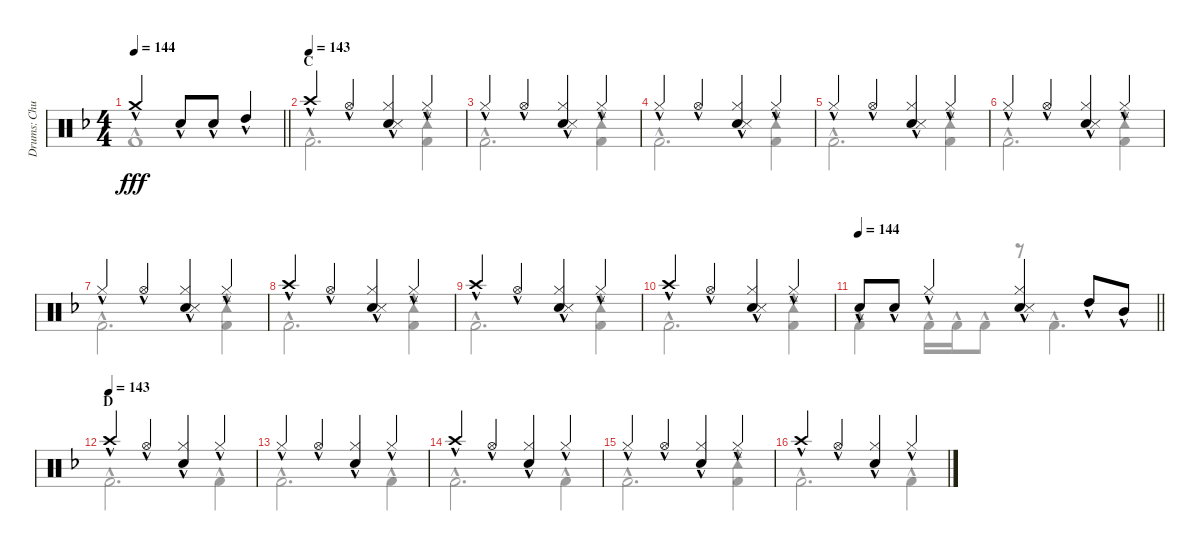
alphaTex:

\track ("Drums: Chuck" "Drums: Chu") {instrument percussion}
\staff {score}
\articulation defaults
\voice
\ts (4 4)
\tempo 144
\clef neutral
\barLineRight lightlight
\ks f "Crash medium (hit)"{hac}.2{dy fff} "Electric Snare (hit)"{hac}.8 "Snare (hit) 2"{hac}.8 "High Tom (hit)"{hac}.4
|
\section ("" "C")
\tempo (143)
"Crash high (hit)"{hac}.4 "Hi-Hat (open)"{hac}.4 ("Hi-Hat (closed)"{hac} "Electric Snare (hit)"{hac} "Snare (side stick) 3"{hac}).4 "Hi-Hat (closed)"{hac}.4 |
"Hi-Hat (closed)"{hac}.4 "Hi-Hat (open)"{hac}.4 ("Hi-Hat (closed)"{hac} "Electric Snare (hit)"{hac} "Snare (side stick) 3"{hac}).4 "Hi-Hat (closed)"{hac}.4 |
"Hi-Hat (closed)"{hac}.4 "Hi-Hat (open)"{hac}.4 ("Hi-Hat (closed)"{hac} "Electric Snare (hit)"{hac} "Snare (side stick) 3"{hac}).4 "Hi-Hat (closed)"{hac}.4 |
"Hi-Hat (closed)"{hac}.4 "Hi-Hat (open)"{hac}.4 ("Hi-Hat (closed)"{hac} "Electric Snare (hit)"{hac} "Snare (side stick) 3"{hac}).4 "Hi-Hat (closed)"{hac}.4 |
"Hi-Hat (closed)"{hac}.4 "Hi-Hat (open)"{hac}.4 ("Hi-Hat (closed)"{hac} "Electric Snare (hit)"{hac} "Snare (side stick) 3"{hac}).4 "Hi-Hat (closed)"{hac}.4 |
"Hi-Hat (closed)"{hac}.4 "Hi-Hat (open)"{hac}.4 ("Hi-Hat (closed)"{hac} "Electric Snare (hit)"{hac} "Snare (side stick) 3"{hac}).4 "Hi-Hat (closed)"{hac}.4 |
"Crash high (hit)"{hac}.4 "Hi-Hat (open)"{hac}.4 ("Hi-Hat (closed)"{hac} "Electric Snare (hit)"{hac} "Snare (side stick) 3"{hac}).4 "Hi-Hat (closed)"{hac}.4 |
"Crash high (hit)"{hac}.4 "Hi-Hat (open)"{hac}.4 ("Hi-Hat (closed)"{hac} "Electric Snare (hit)"{hac} "Snare (side stick) 3"{hac}).4 "Hi-Hat (closed)"{hac}.4 |
"Crash high (hit)"{hac}.4 "Hi-Hat (open)"{hac}.4 ("Hi-Hat (closed)"{hac} "Electric Snare (hit)"{hac} "Snare (side stick) 3"{hac}).4 "Hi-Hat (closed)"{hac}.4 |
\tempo 144
\barLineRight lightlight "Electric Snare (hit)"{hac}.8 "Electric Snare (hit)"{hac}.8 "Hi-Hat (closed)"{hac}.4
("Hi-Hat (closed)"{hac} "Electric Snare (hit)"{hac} "Snare (side stick) 3"{hac}).4 "High Tom (hit)"{hac}.8 "Mid Tom (hit)"{hac}.8 |
\section ("" "D")
\tempo (143)
"Crash high (hit)"{hac}.4 "Hi-Hat (open)"{hac}.4 ("Hi-Hat (closed)"{hac} "Snare (hit) 2"{hac}).4 "Hi-Hat (closed)"{hac}.4 |
"Hi-Hat (closed)"{hac}.4 "Hi-Hat (open)"{hac}.4 ("Hi-Hat (closed)"{hac} "Snare (hit) 2"{hac}).4 "Hi-Hat (closed)"{hac}.4 |
"Crash high (hit)"{hac}.4 "Hi-Hat (open)"{hac}.4 ("Hi-Hat (closed)"{hac} "Snare (hit) 2"{hac}).4 "Hi-Hat (closed)"{hac}.4 |
"Hi-Hat (closed)"{hac}.4 "Hi-Hat (open)"{hac}.4 ("Hi-Hat (closed)"{hac} "Snare (hit) 2"{hac}).4 "Hi-Hat (closed)"{hac}.4 |
"Crash high (hit)"{hac}.4 "Hi-Hat (open)"{hac}.4 ("Hi-Hat (closed)"{hac} "Snare (hit) 2"{hac}).4 "Hi-Hat (closed)"{hac}.4
\voice
\clef neutral
\ottava regular
\simile none
\barLineRight lightlight
\ks f "Kick (hit) 2"{hac}.1{dy fff}
|
"Kick (hit) 2"{hac}.2{d} ("Tambourine (hit)"{hac} "Kick (hit) 2"{hac}).4 |
"Kick (hit) 2"{hac}.2{d} ("Tambourine (hit)"{hac} "Kick (hit) 2"{hac}).4 |
"Kick (hit) 2"{hac}.2{d} ("Tambourine (hit)"{hac} "Kick (hit) 2"{hac}).4 |
"Kick (hit) 2"{hac}.2{d} ("Tambourine (hit)"{hac} "Kick (hit) 2"{hac}).4 |
"Kick (hit) 2"{hac}.2{d} ("Tambourine (hit)"{hac} "Kick (hit) 2"{hac}).4 |
"Kick (hit) 2"{hac}.2{d} ("Tambourine (hit)"{hac} "Kick (hit) 2"{hac}).4 |
"Kick (hit) 2"{hac}.2{d} ("Tambourine (hit)"{hac} "Kick (hit) 2"{hac}).4 |
"Kick (hit) 2"{hac}.2{d} ("Tambourine (hit)"{hac} "Kick (hit) 2"{hac}).4 |
"Kick (hit) 2"{hac}.2{d} ("Tambourine (hit)"{hac} "Kick (hit) 2"{hac}).4 |
\barLineRight lightlight "Kick (hit) 2"{hac}.4 "Kick (hit) 2"{hac}.16 "Kick (hit) 2"{hac}.16 "Kick (hit) 2"{hac}.8
r.8 "Kick (hit) 2"{hac}.4{d} |
"Kick (hit) 2"{hac}.2{d} "Kick (hit) 2"{hac}.4 |
"Kick (hit) 2"{hac}.2{d} "Kick (hit) 2"{hac}.4 |
"Kick (hit) 2"{hac}.2{d} "Kick (hit) 2"{hac}.4 |
"Kick (hit) 2"{hac}.2{d} ("Tambourine (hit)"{hac} "Kick (hit) 2"{hac}).4 |
"Kick (hit) 2"{hac}.2{d} "Kick (hit) 2"{hac}.4
